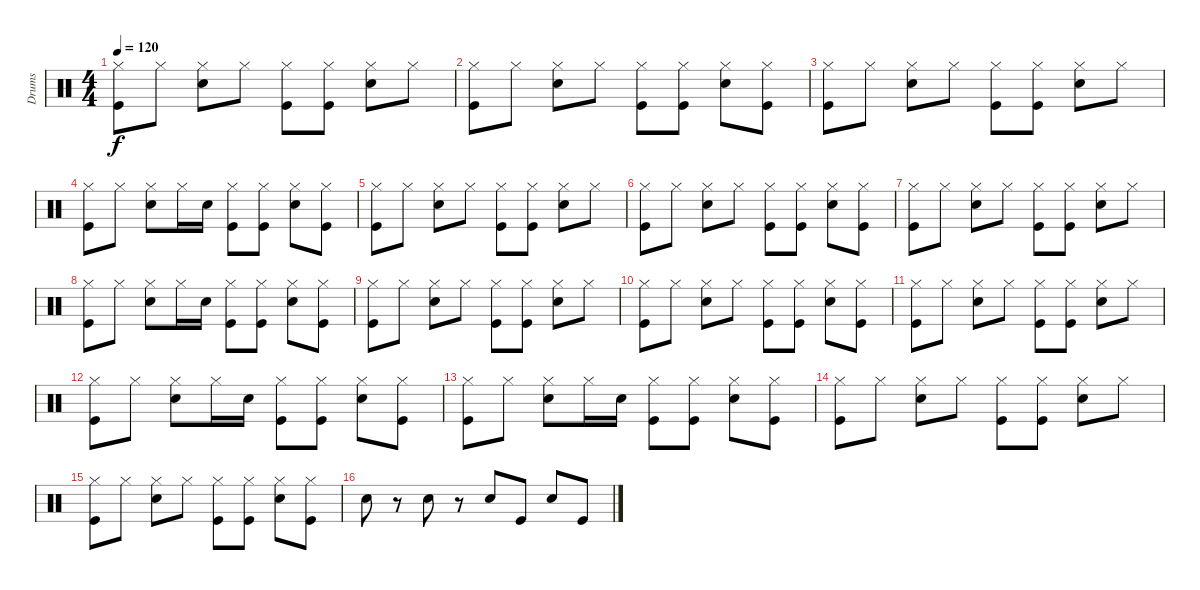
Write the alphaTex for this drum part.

\track ("Drums" "Drums") {instrument percussion}
\staff {score}
\articulation defaults
\ts (4 4)
\tempo 120
\clef neutral
\ks c
("Hi-Hat (closed)" "Kick (hit)").8{dy f} "Hi-Hat (closed)".8 ("Hi-Hat (closed)" "Snare (hit) 2").8 "Hi-Hat (closed)".8 ("Hi-Hat (closed)" "Kick (hit)").8 ("Hi-Hat (closed)" "Kick (hit)").8 ("Hi-Hat (closed)" "Snare (hit) 2").8 "Hi-Hat (closed)".8 |
("Hi-Hat (closed)" "Kick (hit)").8 "Hi-Hat (closed)".8 ("Hi-Hat (closed)" "Snare (hit) 2").8 "Hi-Hat (closed)".8 ("Hi-Hat (closed)" "Kick (hit)").8 ("Hi-Hat (closed)" "Kick (hit)").8 ("Hi-Hat (closed)" "Snare (hit) 2").8 ("Hi-Hat (closed)" "Kick (hit)").8 |
("Hi-Hat (closed)" "Kick (hit)").8 "Hi-Hat (closed)".8 ("Hi-Hat (closed)" "Snare (hit) 2").8 "Hi-Hat (closed)".8 ("Hi-Hat (closed)" "Kick (hit)").8 ("Hi-Hat (closed)" "Kick (hit)").8 ("Hi-Hat (closed)" "Snare (hit) 2").8 "Hi-Hat (closed)".8 |
("Hi-Hat (closed)" "Kick (hit)").8 "Hi-Hat (closed)".8 ("Hi-Hat (closed)" "Snare (hit) 2").8 "Hi-Hat (closed)".16 "Snare (hit) 2".16 ("Hi-Hat (closed)" "Kick (hit)").8 ("Hi-Hat (closed)" "Kick (hit)").8 ("Hi-Hat (closed)" "Snare (hit) 2").8 ("Hi-Hat (closed)" "Kick (hit)").8 |
("Hi-Hat (closed)" "Kick (hit)").8 "Hi-Hat (closed)".8 ("Hi-Hat (closed)" "Snare (hit) 2").8 "Hi-Hat (closed)".8 ("Hi-Hat (closed)" "Kick (hit)").8 ("Hi-Hat (closed)" "Kick (hit)").8 ("Hi-Hat (closed)" "Snare (hit) 2").8 "Hi-Hat (closed)".8 |
("Hi-Hat (closed)" "Kick (hit)").8 "Hi-Hat (closed)".8 ("Hi-Hat (closed)" "Snare (hit) 2").8 "Hi-Hat (closed)".8 ("Hi-Hat (closed)" "Kick (hit)").8 ("Hi-Hat (closed)" "Kick (hit)").8 ("Hi-Hat (closed)" "Snare (hit) 2").8 ("Hi-Hat (closed)" "Kick (hit)").8 |
("Hi-Hat (closed)" "Kick (hit)").8 "Hi-Hat (closed)".8 ("Hi-Hat (closed)" "Snare (hit) 2").8 "Hi-Hat (closed)".8 ("Hi-Hat (closed)" "Kick (hit)").8 ("Hi-Hat (closed)" "Kick (hit)").8 ("Hi-Hat (closed)" "Snare (hit) 2").8 "Hi-Hat (closed)".8 |
("Hi-Hat (closed)" "Kick (hit)").8 "Hi-Hat (closed)".8 ("Hi-Hat (closed)" "Snare (hit) 2").8 "Hi-Hat (closed)".16 "Snare (hit) 2".16 ("Hi-Hat (closed)" "Kick (hit)").8 ("Hi-Hat (closed)" "Kick (hit)").8 ("Hi-Hat (closed)" "Snare (hit) 2").8 ("Hi-Hat (closed)" "Kick (hit)").8 |
("Hi-Hat (closed)" "Kick (hit)").8 "Hi-Hat (closed)".8 ("Hi-Hat (closed)" "Snare (hit) 2").8 "Hi-Hat (closed)".8 ("Hi-Hat (closed)" "Kick (hit)").8 ("Hi-Hat (closed)" "Kick (hit)").8 ("Hi-Hat (closed)" "Snare (hit) 2").8 "Hi-Hat (closed)".8 |
("Hi-Hat (closed)" "Kick (hit)").8 "Hi-Hat (closed)".8 ("Hi-Hat (closed)" "Snare (hit) 2").8 "Hi-Hat (closed)".8 ("Hi-Hat (closed)" "Kick (hit)").8 ("Hi-Hat (closed)" "Kick (hit)").8 ("Hi-Hat (closed)" "Snare (hit) 2").8 ("Hi-Hat (closed)" "Kick (hit)").8 |
("Hi-Hat (closed)" "Kick (hit)").8 "Hi-Hat (closed)".8 ("Hi-Hat (closed)" "Snare (hit) 2").8 "Hi-Hat (closed)".8 ("Hi-Hat (closed)" "Kick (hit)").8 ("Hi-Hat (closed)" "Kick (hit)").8 ("Hi-Hat (closed)" "Snare (hit) 2").8 "Hi-Hat (closed)".8 |
("Hi-Hat (closed)" "Kick (hit)").8 "Hi-Hat (closed)".8 ("Hi-Hat (closed)" "Snare (hit) 2").8 "Hi-Hat (closed)".16 "Snare (hit) 2".16 ("Hi-Hat (closed)" "Kick (hit)").8 ("Hi-Hat (closed)" "Kick (hit)").8 ("Hi-Hat (closed)" "Snare (hit) 2").8 ("Hi-Hat (closed)" "Kick (hit)").8 |
("Hi-Hat (closed)" "Kick (hit)").8 "Hi-Hat (closed)".8 ("Hi-Hat (closed)" "Snare (hit) 2").8 "Hi-Hat (closed)".16 "Snare (hit) 2".16 ("Hi-Hat (closed)" "Kick (hit)").8 ("Hi-Hat (closed)" "Kick (hit)").8 ("Hi-Hat (closed)" "Snare (hit) 2").8 ("Hi-Hat (closed)" "Kick (hit)").8 |
("Hi-Hat (closed)" "Kick (hit)").8 "Hi-Hat (closed)".8 ("Hi-Hat (closed)" "Snare (hit) 2").8 "Hi-Hat (closed)".8 ("Hi-Hat (closed)" "Kick (hit)").8 ("Hi-Hat (closed)" "Kick (hit)").8 ("Hi-Hat (closed)" "Snare (hit) 2").8 "Hi-Hat (closed)".8 |
("Hi-Hat (closed)" "Kick (hit)").8 "Hi-Hat (closed)".8 ("Hi-Hat (closed)" "Snare (hit) 2").8 "Hi-Hat (closed)".8 ("Hi-Hat (closed)" "Kick (hit)").8 ("Hi-Hat (closed)" "Kick (hit)").8 ("Hi-Hat (closed)" "Snare (hit) 2").8 ("Hi-Hat (closed)" "Kick (hit)").8 |
"Snare (hit) 2".8 r.8 "Snare (hit) 2".8 r.8 "Snare (hit) 2".8 "Kick (hit)".8 "Snare (hit) 2".8 "Kick (hit)".8
